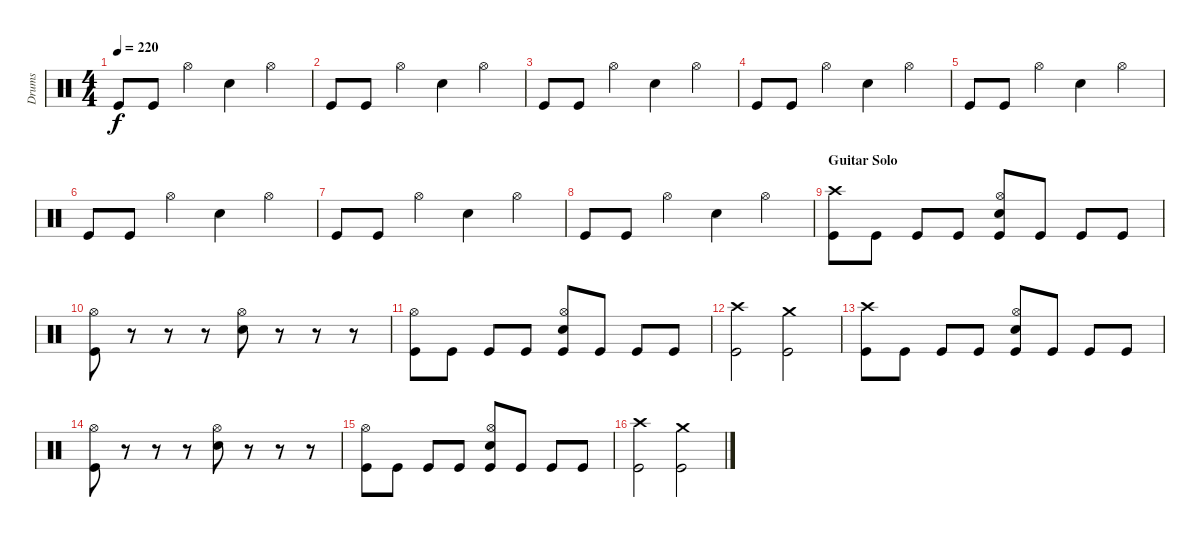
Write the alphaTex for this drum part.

\track ("Drums" "Drums") {instrument percussion}
\staff {score}
\articulation defaults
\ts (4 4)
\tempo 220
\clef neutral
\ks c "Kick (hit)".8{dy f} "Kick (hit)".8 "Hi-Hat (open)".4 "Electric Snare (hit)".4 "Hi-Hat (open)".4
|
"Kick (hit)".8 "Kick (hit)".8 "Hi-Hat (open)".4 "Electric Snare (hit)".4 "Hi-Hat (open)".4 |
"Kick (hit)".8 "Kick (hit)".8 "Hi-Hat (open)".4 "Electric Snare (hit)".4 "Hi-Hat (open)".4 |
"Kick (hit)".8 "Kick (hit)".8 "Hi-Hat (open)".4 "Electric Snare (hit)".4 "Hi-Hat (open)".4 |
"Kick (hit)".8 "Kick (hit)".8 "Hi-Hat (open)".4 "Electric Snare (hit)".4 "Hi-Hat (open)".4 |
"Kick (hit)".8 "Kick (hit)".8 "Hi-Hat (open)".4 "Electric Snare (hit)".4 "Hi-Hat (open)".4 |
"Kick (hit)".8 "Kick (hit)".8 "Hi-Hat (open)".4 "Electric Snare (hit)".4 "Hi-Hat (open)".4 |
"Kick (hit)".8 "Kick (hit)".8 "Hi-Hat (open)".4 "Electric Snare (hit)".4 "Hi-Hat (open)".4 |
\section ("" "Guitar Solo")
("Crash high (hit)" "Kick (hit)").8 "Kick (hit)".8 "Kick (hit)".8 "Kick (hit)".8 ("Hi-Hat (open)" "Electric Snare (hit)" "Kick (hit)").8 "Kick (hit)".8 "Kick (hit)".8 "Kick (hit)".8 |
("Hi-Hat (open)" "Kick (hit)").8 r.8 r.8 r.8 ("Hi-Hat (open)" "Electric Snare (hit)").8 r.8 r.8 r.8 |
("Hi-Hat (open)" "Kick (hit)").8 "Kick (hit)".8 "Kick (hit)".8 "Kick (hit)".8 ("Hi-Hat (open)" "Electric Snare (hit)" "Kick (hit)").8 "Kick (hit)".8 "Kick (hit)".8 "Kick (hit)".8 |
("Crash high (hit)" "Kick (hit)").2 ("Crash medium (hit)" "Kick (hit)").2 |
("Crash high (hit)" "Kick (hit)").8 "Kick (hit)".8 "Kick (hit)".8 "Kick (hit)".8 ("Hi-Hat (open)" "Electric Snare (hit)" "Kick (hit)").8 "Kick (hit)".8 "Kick (hit)".8 "Kick (hit)".8 |
("Hi-Hat (open)" "Kick (hit)").8 r.8 r.8 r.8 ("Hi-Hat (open)" "Electric Snare (hit)").8 r.8 r.8 r.8 |
("Hi-Hat (open)" "Kick (hit)").8 "Kick (hit)".8 "Kick (hit)".8 "Kick (hit)".8 ("Hi-Hat (open)" "Electric Snare (hit)" "Kick (hit)").8 "Kick (hit)".8 "Kick (hit)".8 "Kick (hit)".8 |
("Crash high (hit)" "Kick (hit)").2 ("Crash medium (hit)" "Kick (hit)").2
